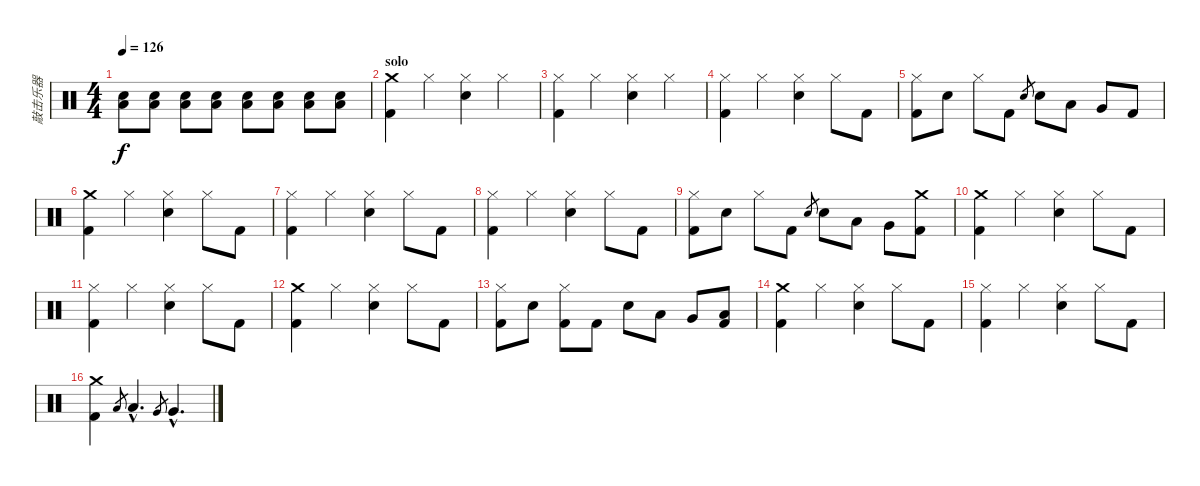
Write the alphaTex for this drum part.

\track ("敲击乐器" "敲击乐器") {instrument percussion}
\staff {score}
\articulation defaults
\ts (4 4)
\tempo 126
\clef neutral
\ks c
("Electric Snare (hit)" "Low Floor Tom (hit)").8{dy f volume 9} ("Electric Snare (hit)" "Low Floor Tom (hit)").8{volume 9} ("Electric Snare (hit)" "Low Floor Tom (hit)").8{volume 10} ("Electric Snare (hit)" "Low Floor Tom (hit)").8{volume 10} ("Electric Snare (hit)" "Low Floor Tom (hit)").8{volume 12} ("Electric Snare (hit)" "Low Floor Tom (hit)").8{volume 13} ("Electric Snare (hit)" "Low Floor Tom (hit)").8{volume 14} ("Electric Snare (hit)" "Low Floor Tom (hit)").8{volume 15} |
\section ("" "solo")
("Crash medium (hit)" "Kick (hit) 2").4 "Hi-Hat (closed)".4 ("Hi-Hat (closed)" "Electric Snare (hit)").4 "Hi-Hat (closed)".4 |
("Hi-Hat (closed)" "Kick (hit) 2").4 "Hi-Hat (closed)".4 ("Hi-Hat (closed)" "Electric Snare (hit)").4 "Hi-Hat (closed)".4 |
("Hi-Hat (closed)" "Kick (hit) 2").4 "Hi-Hat (closed)".4 ("Hi-Hat (closed)" "Electric Snare (hit)").4 "Hi-Hat (closed)".8 "Kick (hit) 2".8 |
("Hi-Hat (closed)" "Kick (hit) 2").8 "Electric Snare (hit)".8 "Hi-Hat (closed)".8 "Kick (hit) 2".8 "Electric Snare (hit)".8{gr} "Electric Snare (hit)".8 "Low Tom (hit)".8 "Very Low Tom (hit)".8 "Kick (hit) 2".8 |
("Crash medium (hit)" "Kick (hit) 2").4 "Hi-Hat (closed)".4 ("Hi-Hat (closed)" "Electric Snare (hit)").4 "Hi-Hat (closed)".8 "Kick (hit) 2".8 |
("Hi-Hat (closed)" "Kick (hit) 2").4 "Hi-Hat (closed)".4 ("Hi-Hat (closed)" "Electric Snare (hit)").4 "Hi-Hat (closed)".8 "Kick (hit) 2".8 |
("Hi-Hat (closed)" "Kick (hit) 2").4 "Hi-Hat (closed)".4 ("Hi-Hat (closed)" "Electric Snare (hit)").4 "Hi-Hat (closed)".8 "Kick (hit) 2".8 |
("Hi-Hat (closed)" "Kick (hit) 2").8 "Electric Snare (hit)".8 "Hi-Hat (closed)".8 "Kick (hit) 2".8 "Electric Snare (hit)".8{gr} "Electric Snare (hit)".8 "Low Tom (hit)".8 "Very Low Tom (hit)".8 ("Crash medium (hit)" "Kick (hit) 2").8 |
("Crash medium (hit)" "Kick (hit) 2").4 "Hi-Hat (closed)".4 ("Hi-Hat (closed)" "Electric Snare (hit)").4 "Hi-Hat (closed)".8 "Kick (hit) 2".8 |
("Hi-Hat (closed)" "Kick (hit) 2").4 "Hi-Hat (closed)".4 ("Hi-Hat (closed)" "Electric Snare (hit)").4 "Hi-Hat (closed)".8 "Kick (hit) 2".8 |
("Crash medium (hit)" "Kick (hit) 2").4 "Hi-Hat (closed)".4 ("Hi-Hat (closed)" "Electric Snare (hit)").4 "Hi-Hat (closed)".8 "Kick (hit) 2".8 |
("Hi-Hat (closed)" "Kick (hit) 2").8 "Electric Snare (hit)".8 ("Hi-Hat (closed)" "Kick (hit) 2").8 "Kick (hit) 2".8 "Electric Snare (hit)".8 "Low Tom (hit)".8 "Very Low Tom (hit)".8 ("Kick (hit) 2" "Low Floor Tom (hit)").8 |
("Crash medium (hit)" "Kick (hit) 2").4 "Hi-Hat (closed)".4 ("Hi-Hat (closed)" "Electric Snare (hit)").4 "Hi-Hat (closed)".8 "Kick (hit) 2".8 |
("Hi-Hat (closed)" "Kick (hit) 2").4 "Hi-Hat (closed)".4 ("Hi-Hat (closed)" "Electric Snare (hit)").4 "Hi-Hat (closed)".8 "Kick (hit) 2".8 |
("Crash medium (hit)" "Kick (hit) 2").4 "Low Tom (hit)".8{gr} "Low Tom (hit)"{hac}.4{d} "Very Low Tom (hit)".8{gr} "Very Low Tom (hit)"{hac}.4{d}
